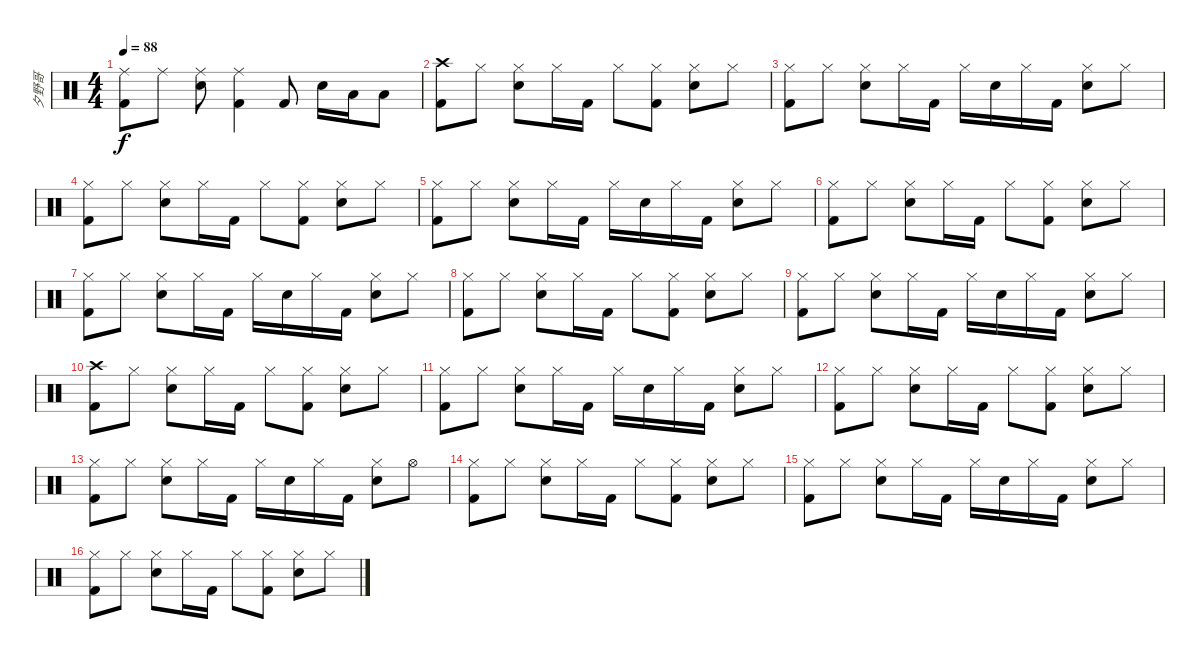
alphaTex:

\track ("夕野哥" "夕野哥") {instrument percussion}
\staff {score}
\articulation defaults
\ts (4 4)
\tempo 88
\clef neutral
\ks c
("Ride (middle)" "Kick (hit) 2").8{dy f} "Ride (middle)".8 ("Ride (middle)" "Electric Snare (hit)").8 ("Ride (middle)" "Kick (hit) 2").4 "Kick (hit) 2".8 "Electric Snare (hit)".16 "Low Floor Tom (hit)".16 "Low Tom (hit)".8 |
("Crash high (hit)" "Kick (hit) 2").8 "Hi-Hat (closed)".8 ("Hi-Hat (closed)" "Electric Snare (hit)").8 "Hi-Hat (closed)".16 "Kick (hit) 2".16 "Hi-Hat (closed)".8 ("Hi-Hat (closed)" "Kick (hit) 2").8 ("Hi-Hat (closed)" "Electric Snare (hit)").8 "Hi-Hat (closed)".8 |
("Hi-Hat (closed)" "Kick (hit) 2").8 "Hi-Hat (closed)".8 ("Hi-Hat (closed)" "Electric Snare (hit)").8 "Hi-Hat (closed)".16 "Kick (hit) 2".16 "Hi-Hat (closed)".16 "Electric Snare (hit)".16 "Hi-Hat (closed)".16 "Kick (hit) 2".16 ("Hi-Hat (closed)" "Electric Snare (hit)").8 "Hi-Hat (closed)".8 |
("Hi-Hat (closed)" "Kick (hit) 2").8 "Hi-Hat (closed)".8 ("Hi-Hat (closed)" "Electric Snare (hit)").8 "Hi-Hat (closed)".16 "Kick (hit) 2".16 "Hi-Hat (closed)".8 ("Hi-Hat (closed)" "Kick (hit) 2").8 ("Hi-Hat (closed)" "Electric Snare (hit)").8 "Hi-Hat (closed)".8 |
("Hi-Hat (closed)" "Kick (hit) 2").8 "Hi-Hat (closed)".8 ("Hi-Hat (closed)" "Electric Snare (hit)").8 "Hi-Hat (closed)".16 "Kick (hit) 2".16 "Hi-Hat (closed)".16 "Electric Snare (hit)".16 "Hi-Hat (closed)".16 "Kick (hit) 2".16 ("Hi-Hat (closed)" "Electric Snare (hit)").8 "Hi-Hat (closed)".8 |
("Hi-Hat (closed)" "Kick (hit) 2").8 "Hi-Hat (closed)".8 ("Hi-Hat (closed)" "Electric Snare (hit)").8 "Hi-Hat (closed)".16 "Kick (hit) 2".16 "Hi-Hat (closed)".8 ("Hi-Hat (closed)" "Kick (hit) 2").8 ("Hi-Hat (closed)" "Electric Snare (hit)").8 "Hi-Hat (closed)".8 |
("Hi-Hat (closed)" "Kick (hit) 2").8 "Hi-Hat (closed)".8 ("Hi-Hat (closed)" "Electric Snare (hit)").8 "Hi-Hat (closed)".16 "Kick (hit) 2".16 "Hi-Hat (closed)".16 "Electric Snare (hit)".16 "Hi-Hat (closed)".16 "Kick (hit) 2".16 ("Hi-Hat (closed)" "Electric Snare (hit)").8 "Hi-Hat (closed)".8 |
("Hi-Hat (closed)" "Kick (hit) 2").8 "Hi-Hat (closed)".8 ("Hi-Hat (closed)" "Electric Snare (hit)").8 "Hi-Hat (closed)".16 "Kick (hit) 2".16 "Hi-Hat (closed)".8 ("Hi-Hat (closed)" "Kick (hit) 2").8 ("Hi-Hat (closed)" "Electric Snare (hit)").8 "Hi-Hat (closed)".8 |
("Hi-Hat (closed)" "Kick (hit) 2").8 "Hi-Hat (closed)".8 ("Hi-Hat (closed)" "Electric Snare (hit)").8 "Hi-Hat (closed)".16 "Kick (hit) 2".16 "Hi-Hat (closed)".16 "Electric Snare (hit)".16 "Hi-Hat (closed)".16 "Kick (hit) 2".16 ("Hi-Hat (closed)" "Electric Snare (hit)").8 "Hi-Hat (closed)".8 |
("Crash high (hit)" "Kick (hit) 2").8 "Hi-Hat (closed)".8 ("Hi-Hat (closed)" "Electric Snare (hit)").8 "Hi-Hat (closed)".16 "Kick (hit) 2".16 "Hi-Hat (closed)".8 ("Hi-Hat (closed)" "Kick (hit) 2").8 ("Hi-Hat (closed)" "Electric Snare (hit)").8 "Hi-Hat (closed)".8 |
("Hi-Hat (closed)" "Kick (hit) 2").8 "Hi-Hat (closed)".8 ("Hi-Hat (closed)" "Electric Snare (hit)").8 "Hi-Hat (closed)".16 "Kick (hit) 2".16 "Hi-Hat (closed)".16 "Electric Snare (hit)".16 "Hi-Hat (closed)".16 "Kick (hit) 2".16 ("Hi-Hat (closed)" "Electric Snare (hit)").8 "Hi-Hat (closed)".8 |
("Hi-Hat (closed)" "Kick (hit) 2").8 "Hi-Hat (closed)".8 ("Hi-Hat (closed)" "Electric Snare (hit)").8 "Hi-Hat (closed)".16 "Kick (hit) 2".16 "Hi-Hat (closed)".8 ("Hi-Hat (closed)" "Kick (hit) 2").8 ("Hi-Hat (closed)" "Electric Snare (hit)").8 "Hi-Hat (closed)".8 |
("Hi-Hat (closed)" "Kick (hit) 2").8 "Hi-Hat (closed)".8 ("Hi-Hat (closed)" "Electric Snare (hit)").8 "Hi-Hat (closed)".16 "Kick (hit) 2".16 "Hi-Hat (closed)".16 "Electric Snare (hit)".16 "Hi-Hat (closed)".16 "Kick (hit) 2".16 ("Hi-Hat (closed)" "Electric Snare (hit)").8 "Hi-Hat (open)".8 |
("Hi-Hat (closed)" "Kick (hit) 2").8 "Hi-Hat (closed)".8 ("Hi-Hat (closed)" "Electric Snare (hit)").8 "Hi-Hat (closed)".16 "Kick (hit) 2".16 "Hi-Hat (closed)".8 ("Hi-Hat (closed)" "Kick (hit) 2").8 ("Hi-Hat (closed)" "Electric Snare (hit)").8 "Hi-Hat (closed)".8 |
("Hi-Hat (closed)" "Kick (hit) 2").8 "Hi-Hat (closed)".8 ("Hi-Hat (closed)" "Electric Snare (hit)").8 "Hi-Hat (closed)".16 "Kick (hit) 2".16 "Hi-Hat (closed)".16 "Electric Snare (hit)".16 "Hi-Hat (closed)".16 "Kick (hit) 2".16 ("Hi-Hat (closed)" "Electric Snare (hit)").8 "Hi-Hat (closed)".8 |
("Hi-Hat (closed)" "Kick (hit) 2").8 "Hi-Hat (closed)".8 ("Hi-Hat (closed)" "Electric Snare (hit)").8 "Hi-Hat (closed)".16 "Kick (hit) 2".16 "Hi-Hat (closed)".8 ("Hi-Hat (closed)" "Kick (hit) 2").8 ("Hi-Hat (closed)" "Electric Snare (hit)").8 "Hi-Hat (closed)".8
